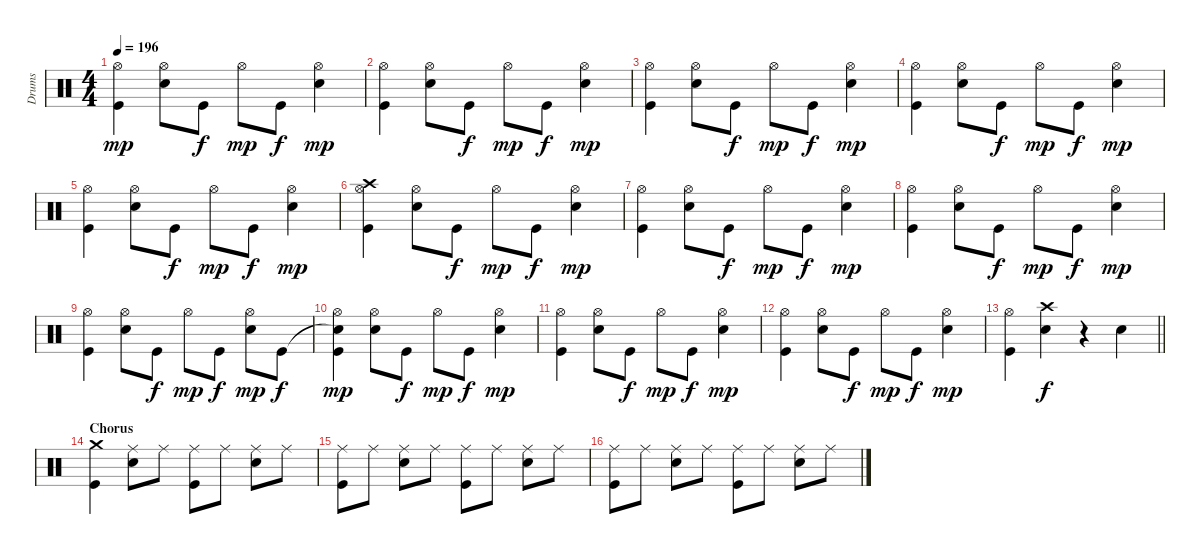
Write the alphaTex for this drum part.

\track ("Drums" "Drums") {instrument percussion}
\staff {score}
\articulation defaults
\ts (4 4)
\tempo 196
\clef neutral
\ks c
("Hi-Hat (open)" "Kick (hit)").4{dy mp} ("Hi-Hat (open)" "Electric Snare (hit)").8 "Kick (hit)".8{dy f} "Hi-Hat (open)".8{dy mp} "Kick (hit)".8{dy f} ("Hi-Hat (open)" "Electric Snare (hit)").4{dy mp} |
("Hi-Hat (open)" "Kick (hit)").4 ("Hi-Hat (open)" "Electric Snare (hit)").8 "Kick (hit)".8{dy f} "Hi-Hat (open)".8{dy mp} "Kick (hit)".8{dy f} ("Hi-Hat (open)" "Electric Snare (hit)").4{dy mp} |
("Hi-Hat (open)" "Kick (hit)").4 ("Hi-Hat (open)" "Electric Snare (hit)").8 "Kick (hit)".8{dy f} "Hi-Hat (open)".8{dy mp} "Kick (hit)".8{dy f} ("Hi-Hat (open)" "Electric Snare (hit)").4{dy mp} |
("Hi-Hat (open)" "Kick (hit)").4 ("Hi-Hat (open)" "Electric Snare (hit)").8 "Kick (hit)".8{dy f} "Hi-Hat (open)".8{dy mp} "Kick (hit)".8{dy f} ("Hi-Hat (open)" "Electric Snare (hit)").4{dy mp} |
("Hi-Hat (open)" "Kick (hit)").4 ("Hi-Hat (open)" "Electric Snare (hit)").8 "Kick (hit)".8{dy f} "Hi-Hat (open)".8{dy mp} "Kick (hit)".8{dy f} ("Hi-Hat (open)" "Electric Snare (hit)").4{dy mp} |
("Crash high (hit)" "Hi-Hat (open)" "Kick (hit)").4 ("Hi-Hat (open)" "Electric Snare (hit)").8 "Kick (hit)".8{dy f} "Hi-Hat (open)".8{dy mp} "Kick (hit)".8{dy f} ("Hi-Hat (open)" "Electric Snare (hit)").4{dy mp} |
("Hi-Hat (open)" "Kick (hit)").4 ("Hi-Hat (open)" "Electric Snare (hit)").8 "Kick (hit)".8{dy f} "Hi-Hat (open)".8{dy mp} "Kick (hit)".8{dy f} ("Hi-Hat (open)" "Electric Snare (hit)").4{dy mp} |
("Hi-Hat (open)" "Kick (hit)").4 ("Hi-Hat (open)" "Electric Snare (hit)").8 "Kick (hit)".8{dy f} "Hi-Hat (open)".8{dy mp} "Kick (hit)".8{dy f} ("Hi-Hat (open)" "Electric Snare (hit)").4{dy mp} |
("Hi-Hat (open)" "Kick (hit)").4 ("Hi-Hat (open)" "Electric Snare (hit)").8 "Kick (hit)".8{dy f} "Hi-Hat (open)".8{dy mp} "Kick (hit)".8{dy f} ("Hi-Hat (open)" "Electric Snare (hit)").8{dy mp} "Kick (hit)".8{dy f} |
("Snare (hit)"{t} "Hi-Hat (open)" "Kick (hit)").4{dy mp} ("Hi-Hat (open)" "Electric Snare (hit)").8 "Kick (hit)".8{dy f} "Hi-Hat (open)".8{dy mp} "Kick (hit)".8{dy f} ("Hi-Hat (open)" "Electric Snare (hit)").4{dy mp} |
("Hi-Hat (open)" "Kick (hit)").4 ("Hi-Hat (open)" "Electric Snare (hit)").8 "Kick (hit)".8{dy f} "Hi-Hat (open)".8{dy mp} "Kick (hit)".8{dy f} ("Hi-Hat (open)" "Electric Snare (hit)").4{dy mp} |
("Hi-Hat (open)" "Kick (hit)").4 ("Hi-Hat (open)" "Electric Snare (hit)").8 "Kick (hit)".8{dy f} "Hi-Hat (open)".8{dy mp} "Kick (hit)".8{dy f} ("Hi-Hat (open)" "Electric Snare (hit)").4{dy mp} |
\barLineRight lightlight
("Hi-Hat (open)" "Kick (hit)").4 ("Crash high (hit)" "Electric Snare (hit)").4{dy f} r.4 "Electric Snare (hit)".4 |
\section ("" "Chorus")
("Crash medium (hit)" "Kick (hit)").4 ("Ride (middle)" "Electric Snare (hit)").8 "Ride (middle)".8 ("Ride (middle)" "Kick (hit)").8 "Ride (middle)".8 ("Ride (middle)" "Electric Snare (hit)").8 "Ride (middle)".8 |
("Ride (middle)" "Kick (hit)").8 "Ride (middle)".8 ("Ride (middle)" "Electric Snare (hit)").8 "Ride (middle)".8 ("Ride (middle)" "Kick (hit)").8 "Ride (middle)".8 ("Ride (middle)" "Electric Snare (hit)").8 "Ride (middle)".8 |
("Ride (middle)" "Kick (hit)").8 "Ride (middle)".8 ("Ride (middle)" "Electric Snare (hit)").8 "Ride (middle)".8 ("Ride (middle)" "Kick (hit)").8 "Ride (middle)".8 ("Ride (middle)" "Electric Snare (hit)").8 "Ride (middle)".8
